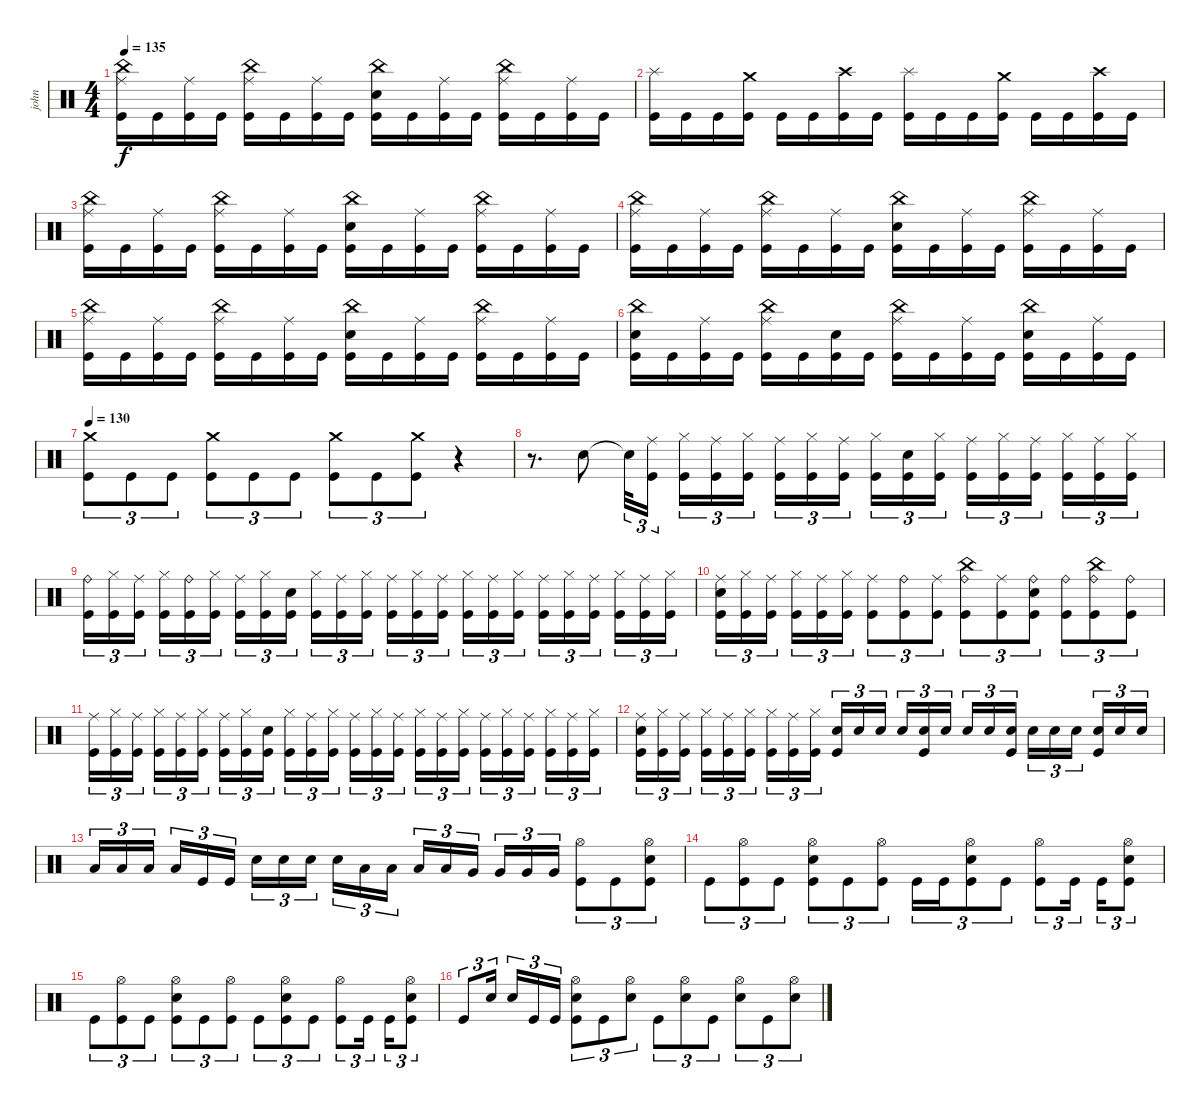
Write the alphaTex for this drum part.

\track ("john" "john") {instrument percussion}
\staff {score}
\articulation defaults
\ts (4 4)
\tempo 135
\clef neutral
\ks c
("Kick (hit)" "Ride (middle)" "China (hit)").16{dy f} "Kick (hit)".16 ("Kick (hit)" "Ride (middle)").16 "Kick (hit)".16 ("Kick (hit)" "Ride (middle)" "China (hit)").16 "Kick (hit)".16 ("Kick (hit)" "Ride (middle)").16 "Kick (hit)".16 ("Kick (hit)" "Snare (hit) 2" "China (hit)").16 "Kick (hit)".16 ("Kick (hit)" "Ride (middle)").16 "Kick (hit)".16 ("Kick (hit)" "Ride (middle)" "China (hit)").16 "Kick (hit)".16 ("Kick (hit)" "Ride (middle)").16 "Kick (hit)".16 |
("Kick (hit)" "Splash (hit)").16 "Kick (hit)".16 "Kick (hit)".16 ("Kick (hit)" "Crash medium (hit)").16 "Kick (hit)".16 "Kick (hit)".16 ("Kick (hit)" "Crash high (hit)").16 "Kick (hit)".16 ("Kick (hit)" "Splash (hit)").16 "Kick (hit)".16 "Kick (hit)".16 ("Kick (hit)" "Crash medium (hit)").16 "Kick (hit)".16 "Kick (hit)".16 ("Kick (hit)" "Crash high (hit)").16 "Kick (hit)".16 |
("Kick (hit)" "Ride (middle)" "China (hit)").16 "Kick (hit)".16 ("Kick (hit)" "Ride (middle)").16 "Kick (hit)".16 ("Kick (hit)" "Ride (middle)" "China (hit)").16 "Kick (hit)".16 ("Kick (hit)" "Ride (middle)").16 "Kick (hit)".16 ("Kick (hit)" "Snare (hit) 2" "China (hit)").16 "Kick (hit)".16 ("Kick (hit)" "Ride (middle)").16 "Kick (hit)".16 ("Kick (hit)" "Ride (middle)" "China (hit)").16 "Kick (hit)".16 ("Kick (hit)" "Ride (middle)").16 "Kick (hit)".16 |
("Kick (hit)" "Ride (middle)" "China (hit)").16 "Kick (hit)".16 ("Kick (hit)" "Ride (middle)").16 "Kick (hit)".16 ("Kick (hit)" "Ride (middle)" "China (hit)").16 "Kick (hit)".16 ("Kick (hit)" "Ride (middle)").16 "Kick (hit)".16 ("Kick (hit)" "Snare (hit) 2" "China (hit)").16 "Kick (hit)".16 ("Kick (hit)" "Ride (middle)").16 "Kick (hit)".16 ("Kick (hit)" "Ride (middle)" "China (hit)").16 "Kick (hit)".16 ("Kick (hit)" "Ride (middle)").16 "Kick (hit)".16 |
("Kick (hit)" "Ride (middle)" "China (hit)").16 "Kick (hit)".16 ("Kick (hit)" "Ride (middle)").16 "Kick (hit)".16 ("Kick (hit)" "Ride (middle)" "China (hit)").16 "Kick (hit)".16 ("Kick (hit)" "Ride (middle)").16 "Kick (hit)".16 ("Kick (hit)" "Snare (hit) 2" "China (hit)").16 "Kick (hit)".16 ("Kick (hit)" "Ride (middle)").16 "Kick (hit)".16 ("Kick (hit)" "Ride (middle)" "China (hit)").16 "Kick (hit)".16 ("Kick (hit)" "Ride (middle)").16 "Kick (hit)".16 |
("Kick (hit)" "Snare (hit) 2" "China (hit)").16 "Kick (hit)".16 ("Kick (hit)" "Ride (middle)").16 "Kick (hit)".16 ("Kick (hit)" "Ride (middle)" "China (hit)").16 "Kick (hit)".16 ("Kick (hit)" "Snare (hit) 2").16 "Kick (hit)".16 ("Kick (hit)" "Ride (middle)" "China (hit)").16 "Kick (hit)".16 ("Kick (hit)" "Ride (middle)").16 "Kick (hit)".16 ("Kick (hit)" "Snare (hit) 2" "China (hit)").16 "Kick (hit)".16 ("Kick (hit)" "Ride (middle)").16 "Kick (hit)".16 |
\tempo 130
("Kick (hit)" "Crash medium (hit)").8{tu (3 2)} "Kick (hit)".8{tu (3 2)} "Kick (hit)".8{tu (3 2)} ("Kick (hit)" "Crash medium (hit)").8{tu (3 2)} "Kick (hit)".8{tu (3 2)} "Kick (hit)".8{tu (3 2)} ("Kick (hit)" "Crash medium (hit)").8{tu (3 2)} "Kick (hit)".8{tu (3 2)} ("Kick (hit)" "Crash medium (hit)").8{tu (3 2)} r.4 |
r.8{d} "Snare (hit) 2".8 "Snare (hit)"{t}.32{tu (3 2)} ("Kick (hit)" "Ride (middle)").16{tu (3 2)} ("Kick (hit)" "Hi-Hat (closed)").16{tu (3 2)} ("Kick (hit)" "Ride (middle)").16{tu (3 2)} ("Kick (hit)" "Hi-Hat (closed)").16{tu (3 2)} ("Kick (hit)" "Ride (middle)").16{tu (3 2)} ("Kick (hit)" "Hi-Hat (closed)").16{tu (3 2)} ("Kick (hit)" "Ride (middle)").16{tu (3 2)} ("Kick (hit)" "Hi-Hat (closed)").16{tu (3 2)} ("Kick (hit)" "Snare (hit) 2").16{tu (3 2)} ("Kick (hit)" "Hi-Hat (closed)").16{tu (3 2)} ("Kick (hit)" "Ride (middle)").16{tu (3 2)} ("Kick (hit)" "Hi-Hat (closed)").16{tu (3 2)} ("Kick (hit)" "Ride (middle)").16{tu (3 2)} ("Kick (hit)" "Hi-Hat (closed)").16{tu (3 2)} ("Kick (hit)" "Ride (middle)").16{tu (3 2)} ("Kick (hit)" "Hi-Hat (closed)").16{tu (3 2)} |
("Kick (hit)" "Ride (bell)").16{tu (3 2)} ("Kick (hit)" "Hi-Hat (closed)").16{tu (3 2)} ("Kick (hit)" "Ride (middle)").16{tu (3 2)} ("Kick (hit)" "Hi-Hat (closed)").16{tu (3 2)} ("Kick (hit)" "Ride (bell)").16{tu (3 2)} ("Kick (hit)" "Hi-Hat (closed)").16{tu (3 2)} ("Kick (hit)" "Ride (middle)").16{tu (3 2)} ("Kick (hit)" "Hi-Hat (closed)").16{tu (3 2)} ("Kick (hit)" "Snare (hit) 2").16{tu (3 2)} ("Kick (hit)" "Hi-Hat (closed)").16{tu (3 2)} ("Kick (hit)" "Ride (middle)").16{tu (3 2)} ("Kick (hit)" "Hi-Hat (closed)").16{tu (3 2)} ("Kick (hit)" "Ride (middle)").16{tu (3 2)} ("Kick (hit)" "Hi-Hat (closed)").16{tu (3 2)} ("Kick (hit)" "Ride (middle)").16{tu (3 2)} ("Kick (hit)" "Hi-Hat (closed)").16{tu (3 2)} ("Kick (hit)" "Ride (middle)").16{tu (3 2)} ("Kick (hit)" "Hi-Hat (closed)").16{tu (3 2)} ("Kick (hit)" "Ride (middle)").16{tu (3 2)} ("Kick (hit)" "Hi-Hat (closed)").16{tu (3 2)} ("Kick (hit)" "Ride (middle)").16{tu (3 2)} ("Kick (hit)" "Hi-Hat (closed)").16{tu (3 2)} ("Kick (hit)" "Ride (middle)").16{tu (3 2)} ("Kick (hit)" "Hi-Hat (closed)").16{tu (3 2)} |
("Kick (hit)" "Ride (middle)" "Snare (hit) 2").16{tu (3 2)} ("Kick (hit)" "Hi-Hat (closed)").16{tu (3 2)} ("Kick (hit)" "Ride (middle)").16{tu (3 2)} ("Kick (hit)" "Hi-Hat (closed)").16{tu (3 2)} ("Kick (hit)" "Ride (middle)").16{tu (3 2)} ("Kick (hit)" "Hi-Hat (closed)").16{tu (3 2)} ("Kick (hit)" "Ride (middle)").8{tu (3 2)} ("Kick (hit)" "Ride (bell)").8{tu (3 2)} ("Kick (hit)" "Ride (middle)").8{tu (3 2)} ("Kick (hit)" "Ride (bell)" "China (hit)").8{tu (3 2)} ("Kick (hit)" "Ride (middle)").8{tu (3 2)} ("Kick (hit)" "Ride (bell)" "Snare (hit) 2").8{tu (3 2)} ("Kick (hit)" "Ride (bell)").8{tu (3 2)} ("Kick (hit)" "Ride (bell)" "China (hit)").8{tu (3 2)} ("Kick (hit)" "Ride (bell)").8{tu (3 2)} |
("Kick (hit)" "Ride (middle)").16{tu (3 2)} ("Kick (hit)" "Hi-Hat (closed)").16{tu (3 2)} ("Kick (hit)" "Ride (middle)").16{tu (3 2)} ("Kick (hit)" "Hi-Hat (closed)").16{tu (3 2)} ("Kick (hit)" "Ride (middle)").16{tu (3 2)} ("Kick (hit)" "Hi-Hat (closed)").16{tu (3 2)} ("Kick (hit)" "Ride (middle)").16{tu (3 2)} ("Kick (hit)" "Hi-Hat (closed)").16{tu (3 2)} ("Kick (hit)" "Snare (hit) 2").16{tu (3 2)} ("Kick (hit)" "Hi-Hat (closed)").16{tu (3 2)} ("Kick (hit)" "Ride (middle)").16{tu (3 2)} ("Kick (hit)" "Hi-Hat (closed)").16{tu (3 2)} ("Kick (hit)" "Ride (middle)").16{tu (3 2)} ("Kick (hit)" "Hi-Hat (closed)").16{tu (3 2)} ("Kick (hit)" "Ride (middle)").16{tu (3 2)} ("Kick (hit)" "Hi-Hat (closed)").16{tu (3 2)} ("Kick (hit)" "Ride (middle)").16{tu (3 2)} ("Kick (hit)" "Hi-Hat (closed)").16{tu (3 2)} ("Kick (hit)" "Ride (middle)").16{tu (3 2)} ("Kick (hit)" "Hi-Hat (closed)").16{tu (3 2)} ("Kick (hit)" "Ride (middle)").16{tu (3 2)} ("Kick (hit)" "Hi-Hat (closed)").16{tu (3 2)} ("Kick (hit)" "Ride (middle)").16{tu (3 2)} ("Kick (hit)" "Hi-Hat (closed)").16{tu (3 2)} |
("Kick (hit)" "Ride (middle)" "Snare (hit) 2").16{tu (3 2)} ("Kick (hit)" "Hi-Hat (closed)").16{tu (3 2)} ("Kick (hit)" "Ride (middle)").16{tu (3 2)} ("Kick (hit)" "Hi-Hat (closed)").16{tu (3 2)} ("Kick (hit)" "Ride (middle)").16{tu (3 2)} ("Kick (hit)" "Hi-Hat (closed)").16{tu (3 2)} ("Kick (hit)" "Hi-Hat (closed)").16{tu (3 2)} ("Kick (hit)" "Ride (middle)").16{tu (3 2)} ("Kick (hit)" "Hi-Hat (closed)").16{tu (3 2)} ("Snare (hit) 2" "Kick (hit)").16{tu (3 2)} "Snare (hit) 2".16{tu (3 2)} "Snare (hit) 2".16{tu (3 2)} "Snare (hit) 2".16{tu (3 2)} ("Snare (hit) 2" "Kick (hit)").16{tu (3 2)} "Snare (hit) 2".16{tu (3 2)} "Snare (hit) 2".16{tu (3 2)} "Snare (hit) 2".16{tu (3 2)} ("Snare (hit) 2" "Kick (hit)").16{tu (3 2)} "Snare (hit) 2".16{tu (3 2)} "Snare (hit) 2".16{tu (3 2)} "Snare (hit) 2".16{tu (3 2)} ("Snare (hit) 2" "Kick (hit)").16{tu (3 2)} "Snare (hit) 2".16{tu (3 2)} "Snare (hit) 2".16{tu (3 2)} |
"Low Floor Tom (hit)".16{tu (3 2)} "Low Floor Tom (hit)".16{tu (3 2)} "Low Floor Tom (hit)".16{tu (3 2)} "Low Floor Tom (hit)".16{tu (3 2)} "Kick (hit)".16{tu (3 2)} "Kick (hit)".16{tu (3 2)} "Snare (hit) 2".16{tu (3 2)} "Snare (hit) 2".16{tu (3 2)} "Snare (hit) 2".16{tu (3 2)} "Snare (hit) 2".16{tu (3 2)} "Low Tom (hit)".16{tu (3 2)} "Low Tom (hit)".16{tu (3 2)} "Low Tom (hit)".16{tu (3 2)} "Low Tom (hit)".16{tu (3 2)} "Very Low Tom (hit)".16{tu (3 2)} "Very Low Tom (hit)".16{tu (3 2)} "Very Low Tom (hit)".16{tu (3 2)} "Very Low Tom (hit)".16{tu (3 2)} ("Kick (hit)" "Hi-Hat (open)").8{tu (3 2)} "Kick (hit)".8{tu (3 2)} ("Kick (hit)" "Snare (hit) 2" "Hi-Hat (open)").8{tu (3 2)} |
"Kick (hit)".8{tu (3 2)} ("Kick (hit)" "Hi-Hat (open)").8{tu (3 2)} "Kick (hit)".8{tu (3 2)} ("Kick (hit)" "Snare (hit) 2" "Hi-Hat (open)").8{tu (3 2)} "Kick (hit)".8{tu (3 2)} ("Kick (hit)" "Hi-Hat (open)").8{tu (3 2)} "Kick (hit)".16{tu (3 2)} "Kick (hit)".16{tu (3 2)} ("Kick (hit)" "Snare (hit) 2" "Hi-Hat (open)").8{tu (3 2)} "Kick (hit)".8{tu (3 2)} ("Kick (hit)" "Hi-Hat (open)").8{tu (3 2)} "Kick (hit)".16{tu (3 2)} "Kick (hit)".16{tu (3 2)} ("Kick (hit)" "Snare (hit) 2" "Hi-Hat (open)").8{tu (3 2)} |
"Kick (hit)".8{tu (3 2)} ("Kick (hit)" "Hi-Hat (open)").8{tu (3 2)} "Kick (hit)".8{tu (3 2)} ("Kick (hit)" "Snare (hit) 2" "Hi-Hat (open)").8{tu (3 2)} "Kick (hit)".8{tu (3 2)} ("Kick (hit)" "Hi-Hat (open)").8{tu (3 2)} "Kick (hit)".8{tu (3 2)} ("Kick (hit)" "Snare (hit) 2" "Hi-Hat (open)").8{tu (3 2)} "Kick (hit)".8{tu (3 2)} ("Kick (hit)" "Hi-Hat (open)").8{tu (3 2)} "Kick (hit)".16{tu (3 2)} "Kick (hit)".16{tu (3 2)} ("Kick (hit)" "Snare (hit) 2" "Hi-Hat (open)").8{tu (3 2)} |
"Kick (hit)".8{tu (3 2)} "Snare (hit) 2".16{tu (3 2)} "Snare (hit) 2".16{tu (3 2)} "Kick (hit)".16{tu (3 2)} "Kick (hit)".16{tu (3 2)} ("Snare (hit) 2" "Kick (hit)" "Hi-Hat (open)").8{tu (3 2)} "Kick (hit)".8{tu (3 2)} ("Hi-Hat (open)" "Snare (hit) 2").8{tu (3 2)} "Kick (hit)".8{tu (3 2)} ("Hi-Hat (open)" "Snare (hit) 2").8{tu (3 2)} "Kick (hit)".8{tu (3 2)} ("Hi-Hat (open)" "Snare (hit) 2").8{tu (3 2)} "Kick (hit)".8{tu (3 2)} ("Hi-Hat (open)" "Snare (hit) 2").8{tu (3 2)}
